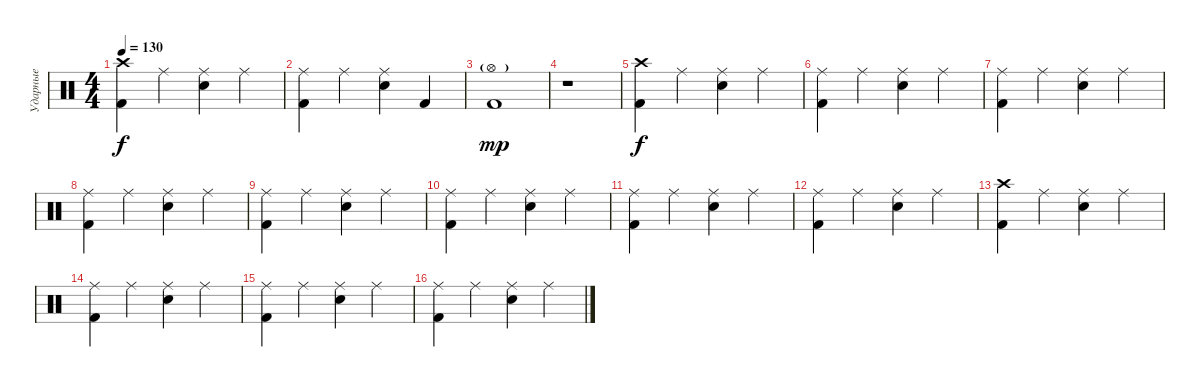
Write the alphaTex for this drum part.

\track ("Ударные" "Ударные") {instrument percussion}
\staff {score}
\articulation defaults
\ts (4 4)
\tempo 130
\clef neutral
\ks c
("Crash high (hit)" "Kick (hit) 2").4{dy f} "Ride (middle)".4 ("Ride (middle)" "Electric Snare (hit)").4 "Ride (middle)".4 |
("Ride (middle)" "Kick (hit) 2").4 "Ride (middle)".4 ("Ride (middle)" "Electric Snare (hit)").4 "Kick (hit) 2".4 |
("Hi-Hat (open)"{g} "Kick (hit) 2").1{dy mp} |
r.1 |
("Crash high (hit)" "Kick (hit) 2").4{dy f} "Ride (middle)".4 ("Ride (middle)" "Electric Snare (hit)").4 "Ride (middle)".4 |
("Ride (middle)" "Kick (hit) 2").4 "Ride (middle)".4 ("Ride (middle)" "Electric Snare (hit)").4 "Ride (middle)".4 |
("Ride (middle)" "Kick (hit) 2").4 "Ride (middle)".4 ("Ride (middle)" "Electric Snare (hit)").4 "Ride (middle)".4 |
("Ride (middle)" "Kick (hit) 2").4 "Ride (middle)".4 ("Ride (middle)" "Electric Snare (hit)").4 "Ride (middle)".4 |
("Ride (middle)" "Kick (hit) 2").4 "Ride (middle)".4 ("Ride (middle)" "Electric Snare (hit)").4 "Ride (middle)".4 |
("Ride (middle)" "Kick (hit) 2").4 "Ride (middle)".4 ("Ride (middle)" "Electric Snare (hit)").4 "Ride (middle)".4 |
("Ride (middle)" "Kick (hit) 2").4 "Ride (middle)".4 ("Ride (middle)" "Electric Snare (hit)").4 "Ride (middle)".4 |
("Ride (middle)" "Kick (hit) 2").4 "Ride (middle)".4 ("Ride (middle)" "Electric Snare (hit)").4 "Ride (middle)".4 |
("Crash high (hit)" "Kick (hit) 2").4 "Ride (middle)".4 ("Ride (middle)" "Electric Snare (hit)").4 "Ride (middle)".4 |
("Ride (middle)" "Kick (hit) 2").4 "Ride (middle)".4 ("Ride (middle)" "Electric Snare (hit)").4 "Ride (middle)".4 |
("Ride (middle)" "Kick (hit) 2").4 "Ride (middle)".4 ("Ride (middle)" "Electric Snare (hit)").4 "Ride (middle)".4 |
("Ride (middle)" "Kick (hit) 2").4 "Ride (middle)".4 ("Ride (middle)" "Electric Snare (hit)").4 "Ride (middle)".4
